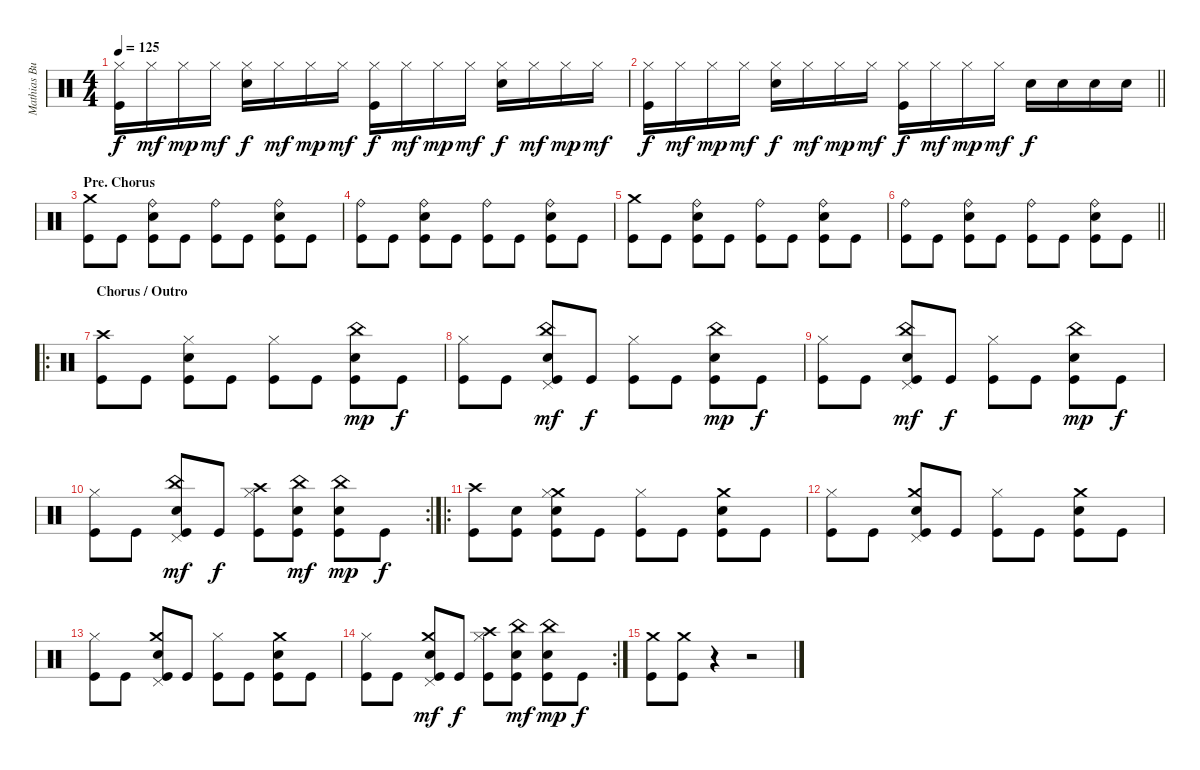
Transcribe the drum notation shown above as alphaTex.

\track ("Mathias Burchardt" "Mathias Bu") {instrument percussion}
\staff {score}
\articulation defaults
\ts (4 4)
\tempo 125
\clef neutral
\ks c
("Hi-Hat (closed)" "Kick (hit)").16{dy f} "Hi-Hat (closed)".16{dy mf} "Hi-Hat (closed)".16{dy mp} "Hi-Hat (closed)".16{dy mf} ("Hi-Hat (closed)" "Snare (hit) 2").16{dy f} "Hi-Hat (closed)".16{dy mf} "Hi-Hat (closed)".16{dy mp} "Hi-Hat (closed)".16{dy mf} ("Hi-Hat (closed)" "Kick (hit)").16{dy f} "Hi-Hat (closed)".16{dy mf} "Hi-Hat (closed)".16{dy mp} "Hi-Hat (closed)".16{dy mf} ("Hi-Hat (closed)" "Snare (hit) 2").16{dy f} "Hi-Hat (closed)".16{dy mf} "Hi-Hat (closed)".16{dy mp} "Hi-Hat (closed)".16{dy mf} |
\barLineRight lightlight
("Hi-Hat (closed)" "Kick (hit)").16{dy f} "Hi-Hat (closed)".16{dy mf} "Hi-Hat (closed)".16{dy mp} "Hi-Hat (closed)".16{dy mf} ("Hi-Hat (closed)" "Snare (hit) 2").16{dy f} "Hi-Hat (closed)".16{dy mf} "Hi-Hat (closed)".16{dy mp} "Hi-Hat (closed)".16{dy mf} ("Hi-Hat (closed)" "Kick (hit)").16{dy f} "Hi-Hat (closed)".16{dy mf} "Hi-Hat (closed)".16{dy mp} "Hi-Hat (closed)".16{dy mf} "Snare (hit) 2".16{dy f} "Snare (hit) 2".16 "Snare (hit) 2".16 "Snare (hit) 2".16 |
\section ("" "Pre. Chorus")
("Crash medium (hit)" "Kick (hit)").8 "Kick (hit)".8 ("Ride (bell)" "Snare (hit) 2" "Kick (hit)").8 "Kick (hit)".8 ("Ride (bell)" "Kick (hit)").8 "Kick (hit)".8 ("Ride (bell)" "Snare (hit) 2" "Kick (hit)").8 "Kick (hit)".8 |
("Ride (bell)" "Kick (hit)").8 "Kick (hit)".8 ("Ride (bell)" "Snare (hit) 2" "Kick (hit)").8 "Kick (hit)".8 ("Ride (bell)" "Kick (hit)").8 "Kick (hit)".8 ("Ride (bell)" "Snare (hit) 2" "Kick (hit)").8 "Kick (hit)".8 |
("Crash medium (hit)" "Kick (hit)").8 "Kick (hit)".8 ("Ride (bell)" "Snare (hit) 2" "Kick (hit)").8 "Kick (hit)".8 ("Ride (bell)" "Kick (hit)").8 "Kick (hit)".8 ("Ride (bell)" "Snare (hit) 2" "Kick (hit)").8 "Kick (hit)".8 |
\barLineRight lightlight
("Ride (bell)" "Kick (hit)").8 "Kick (hit)".8 ("Ride (bell)" "Snare (hit) 2" "Kick (hit)").8 "Kick (hit)".8 ("Ride (bell)" "Kick (hit)").8 "Kick (hit)".8 ("Ride (bell)" "Snare (hit) 2" "Kick (hit)").8 "Kick (hit)".8 |
\ro
\section ("" "Chorus / Outro")
("Crash high (hit)" "Kick (hit)").8 "Kick (hit)".8 ("Hi-Hat (closed)" "Snare (hit) 2" "Kick (hit)").8 "Kick (hit)".8 ("Hi-Hat (closed)" "Kick (hit)").8 "Kick (hit)".8 ("China (hit)" "Snare (hit) 2" "Kick (hit)").8{dy mp} "Kick (hit)".8{dy f} |
("Hi-Hat (closed)" "Kick (hit)").8 "Kick (hit)".8 ("China (hit)" "Pedal Hi-Hat (hit)" "Snare (hit) 2" "Kick (hit)").8{dy mf} "Kick (hit)".8{dy f} ("Hi-Hat (closed)" "Kick (hit)").8 "Kick (hit)".8 ("China (hit)" "Snare (hit) 2" "Kick (hit)").8{dy mp} "Kick (hit)".8{dy f} |
("Hi-Hat (closed)" "Kick (hit)").8 "Kick (hit)".8 ("China (hit)" "Pedal Hi-Hat (hit)" "Snare (hit) 2" "Kick (hit)").8{dy mf} "Kick (hit)".8{dy f} ("Hi-Hat (closed)" "Kick (hit)").8 "Kick (hit)".8 ("China (hit)" "Snare (hit) 2" "Kick (hit)").8{dy mp} "Kick (hit)".8{dy f} |
\rc 2
("Hi-Hat (closed)" "Kick (hit)").8 "Kick (hit)".8 ("China (hit)" "Pedal Hi-Hat (hit)" "Snare (hit) 2" "Kick (hit)").8{dy mf} "Kick (hit)".8{dy f} ("Crash high (hit)" "Hi-Hat (closed)" "Kick (hit)").8 ("China (hit)" "Snare (hit) 2" "Kick (hit)").8{dy mf} ("China (hit)" "Snare (hit) 2" "Kick (hit)").8{dy mp} "Kick (hit)".8{dy f} |
\ro
("Crash high (hit)" "Kick (hit)").8 ("Snare (hit) 2" "Kick (hit)").8 ("Crash medium (hit)" "Hi-Hat (closed)" "Snare (hit) 2" "Kick (hit)").8 "Kick (hit)".8 ("Hi-Hat (closed)" "Kick (hit)").8 "Kick (hit)".8 ("Crash medium (hit)" "Snare (hit) 2" "Kick (hit)").8 "Kick (hit)".8 |
("Hi-Hat (closed)" "Kick (hit)").8 "Kick (hit)".8 ("Crash medium (hit)" "Pedal Hi-Hat (hit)" "Snare (hit) 2" "Kick (hit)").8 "Kick (hit)".8 ("Hi-Hat (closed)" "Kick (hit)").8 "Kick (hit)".8 ("Crash medium (hit)" "Snare (hit) 2" "Kick (hit)").8 "Kick (hit)".8 |
("Hi-Hat (closed)" "Kick (hit)").8 "Kick (hit)".8 ("Crash medium (hit)" "Pedal Hi-Hat (hit)" "Snare (hit) 2" "Kick (hit)").8 "Kick (hit)".8 ("Hi-Hat (closed)" "Kick (hit)").8 "Kick (hit)".8 ("Crash medium (hit)" "Snare (hit) 2" "Kick (hit)").8 "Kick (hit)".8 |
\rc 2
("Hi-Hat (closed)" "Kick (hit)").8 "Kick (hit)".8 ("Crash medium (hit)" "Pedal Hi-Hat (hit)" "Snare (hit) 2" "Kick (hit)").8{dy mf} "Kick (hit)".8{dy f} ("Crash high (hit)" "Hi-Hat (closed)" "Kick (hit)").8 ("China (hit)" "Snare (hit) 2" "Kick (hit)").8{dy mf} ("China (hit)" "Snare (hit) 2" "Kick (hit)").8{dy mp} "Kick (hit)".8{dy f} |
("Crash medium (hit)" "Kick (hit)").8 ("Crash medium (hit)" "Kick (hit)").8 r.4 r.2
